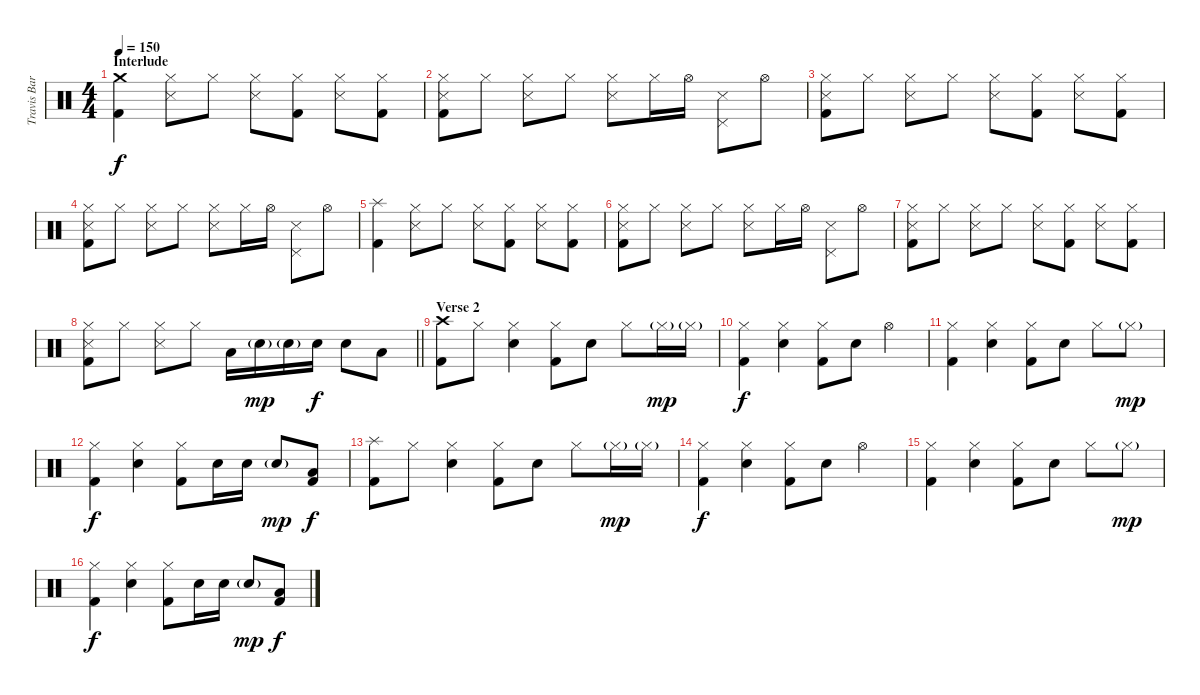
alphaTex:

\track ("Travis Barker - Drums" "Travis Bar") {instrument percussion}
\staff {score}
\articulation defaults
\ts (4 4)
\section ("" "Interlude")
\tempo 150
\clef neutral
\ks c
("Crash medium (hit)" "Kick (hit) 2").4{dy f} ("Hi-Hat (closed)" "Snare (side stick) 3").8 "Hi-Hat (closed)".8 ("Hi-Hat (closed)" "Snare (side stick) 3").8 ("Hi-Hat (closed)" "Kick (hit) 2").8 ("Hi-Hat (closed)" "Snare (side stick) 3").8 ("Hi-Hat (closed)" "Kick (hit) 2").8 |
("Hi-Hat (closed)" "Snare (side stick) 3" "Kick (hit) 2").8 "Hi-Hat (closed)".8 ("Hi-Hat (closed)" "Snare (side stick) 3").8 "Hi-Hat (closed)".8 ("Hi-Hat (closed)" "Snare (side stick) 3").8 "Hi-Hat (closed)".16 "Hi-Hat (open)".16 ("Pedal Hi-Hat (hit)" "Snare (side stick) 3").8 "Hi-Hat (open)".8 |
("Hi-Hat (closed)" "Snare (side stick) 3" "Kick (hit) 2").8 "Hi-Hat (closed)".8 ("Hi-Hat (closed)" "Snare (side stick) 3").8 "Hi-Hat (closed)".8 ("Hi-Hat (closed)" "Snare (side stick) 3").8 ("Hi-Hat (closed)" "Kick (hit) 2").8 ("Hi-Hat (closed)" "Snare (side stick) 3").8 ("Hi-Hat (closed)" "Kick (hit) 2").8 |
("Hi-Hat (closed)" "Snare (side stick) 3" "Kick (hit) 2").8 "Hi-Hat (closed)".8 ("Hi-Hat (closed)" "Snare (side stick) 3").8 "Hi-Hat (closed)".8 ("Hi-Hat (closed)" "Snare (side stick) 3").8 "Hi-Hat (closed)".16 "Hi-Hat (open)".16 ("Pedal Hi-Hat (hit)" "Snare (side stick) 3").8 "Hi-Hat (open)".8 |
("Splash (hit)" "Kick (hit) 2").4 ("Hi-Hat (closed)" "Snare (side stick) 3").8 "Hi-Hat (closed)".8 ("Hi-Hat (closed)" "Snare (side stick) 3").8 ("Hi-Hat (closed)" "Kick (hit) 2").8 ("Hi-Hat (closed)" "Snare (side stick) 3").8 ("Hi-Hat (closed)" "Kick (hit) 2").8 |
("Hi-Hat (closed)" "Snare (side stick) 3" "Kick (hit) 2").8 "Hi-Hat (closed)".8 ("Hi-Hat (closed)" "Snare (side stick) 3").8 "Hi-Hat (closed)".8 ("Hi-Hat (closed)" "Snare (side stick) 3").8 "Hi-Hat (closed)".16 "Hi-Hat (open)".16 ("Pedal Hi-Hat (hit)" "Snare (side stick) 3").8 "Hi-Hat (open)".8 |
("Hi-Hat (closed)" "Snare (side stick) 3" "Kick (hit) 2").8 "Hi-Hat (closed)".8 ("Hi-Hat (closed)" "Snare (side stick) 3").8 "Hi-Hat (closed)".8 ("Hi-Hat (closed)" "Snare (side stick) 3").8 ("Hi-Hat (closed)" "Kick (hit) 2").8 ("Hi-Hat (closed)" "Snare (side stick) 3").8 ("Hi-Hat (closed)" "Kick (hit) 2").8 |
\barLineRight lightlight
("Hi-Hat (closed)" "Snare (side stick) 3" "Kick (hit) 2").8 "Hi-Hat (closed)".8 ("Hi-Hat (closed)" "Snare (side stick) 3").8 "Hi-Hat (closed)".8 "Low Tom (hit)".16 "Electric Snare (hit)"{g}.16{dy mp} "Electric Snare (hit)"{g}.16 "Electric Snare (hit)".16{dy f} "Electric Snare (hit)".8 "Low Tom (hit)".8 |
\section ("" "Verse 2")
("Crash high (hit)" "Kick (hit) 2").8 "Hi-Hat (closed)".8 ("Hi-Hat (closed)" "Electric Snare (hit)").4 ("Hi-Hat (closed)" "Kick (hit) 2").8 "Electric Snare (hit)".8 "Hi-Hat (closed)".8 "Hi-Hat (closed)"{g}.16{dy mp} "Hi-Hat (closed)"{g}.16 |
("Hi-Hat (closed)" "Kick (hit) 2").4{dy f} ("Hi-Hat (closed)" "Electric Snare (hit)").4 ("Hi-Hat (closed)" "Kick (hit) 2").8 "Electric Snare (hit)".8 "Hi-Hat (open)".4 |
("Hi-Hat (closed)" "Kick (hit) 2").4 ("Hi-Hat (closed)" "Electric Snare (hit)").4 ("Hi-Hat (closed)" "Kick (hit) 2").8 "Electric Snare (hit)".8 "Hi-Hat (closed)".8 "Hi-Hat (closed)"{g}.8{dy mp} |
("Hi-Hat (closed)" "Kick (hit) 2").4{dy f} ("Hi-Hat (closed)" "Electric Snare (hit)").4 ("Hi-Hat (closed)" "Kick (hit) 2").8 "Electric Snare (hit)".16 "Electric Snare (hit)".16 "Electric Snare (hit)"{g}.8{dy mp} ("Low Tom (hit)" "Kick (hit) 2").8{dy f} |
("Splash (hit)" "Kick (hit) 2").8 "Hi-Hat (closed)".8 ("Hi-Hat (closed)" "Electric Snare (hit)").4 ("Hi-Hat (closed)" "Kick (hit) 2").8 "Electric Snare (hit)".8 "Hi-Hat (closed)".8 "Hi-Hat (closed)"{g}.16{dy mp} "Hi-Hat (closed)"{g}.16 |
("Hi-Hat (closed)" "Kick (hit) 2").4{dy f} ("Hi-Hat (closed)" "Electric Snare (hit)").4 ("Hi-Hat (closed)" "Kick (hit) 2").8 "Electric Snare (hit)".8 "Hi-Hat (open)".4 |
("Hi-Hat (closed)" "Kick (hit) 2").4 ("Hi-Hat (closed)" "Electric Snare (hit)").4 ("Hi-Hat (closed)" "Kick (hit) 2").8 "Electric Snare (hit)".8 "Hi-Hat (closed)".8 "Hi-Hat (closed)"{g}.8{dy mp} |
("Hi-Hat (closed)" "Kick (hit) 2").4{dy f} ("Hi-Hat (closed)" "Electric Snare (hit)").4 ("Hi-Hat (closed)" "Kick (hit) 2").8 "Electric Snare (hit)".16 "Electric Snare (hit)".16 "Electric Snare (hit)"{g}.8{dy mp} ("Low Tom (hit)" "Kick (hit) 2").8{dy f}
